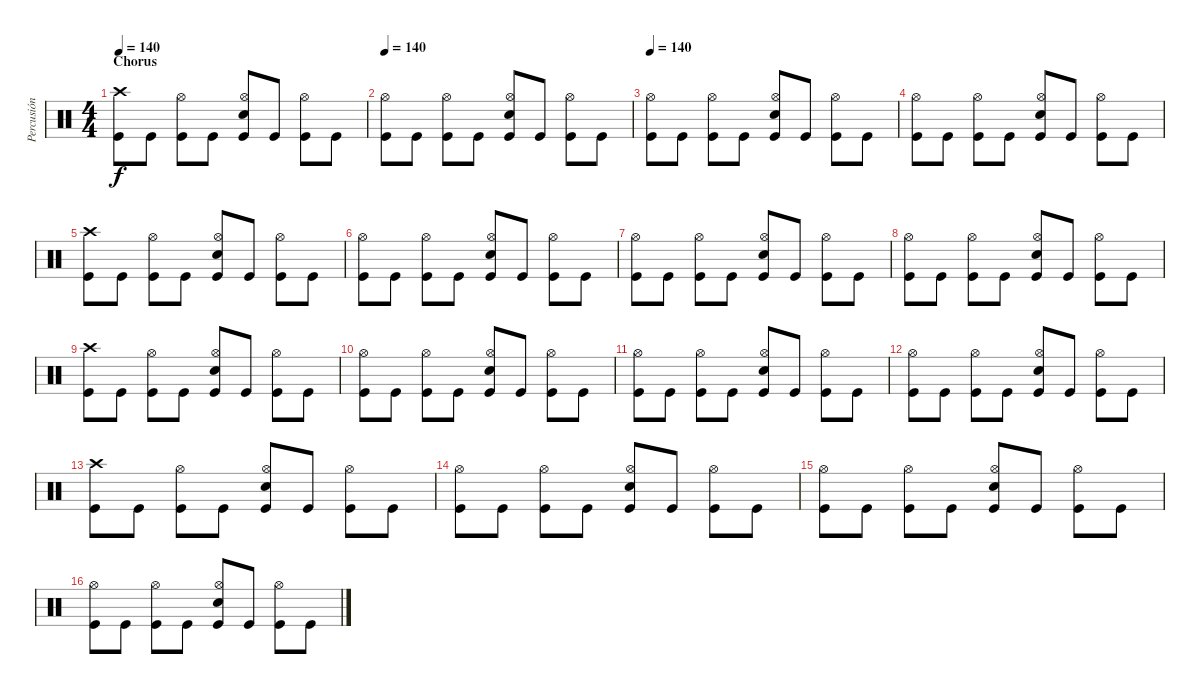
\track ("Percusión" "Percusión") {instrument percussion}
\staff
\articulation defaults
\ts (4 4)
\section ("" "Chorus")
\tempo 140
\clef neutral
\ks c
("Kick (hit)" "Crash high (hit)").8{dy f} "Kick (hit)".8 ("Kick (hit)" "Hi-Hat (open)").8 "Kick (hit)".8 ("Kick (hit)" "Hi-Hat (open)" "Electric Snare (hit)").8 "Kick (hit)".8 ("Kick (hit)" "Hi-Hat (open)").8 "Kick (hit)".8 |
\tempo 140
("Kick (hit)" "Hi-Hat (open)").8 "Kick (hit)".8 ("Kick (hit)" "Hi-Hat (open)").8 "Kick (hit)".8 ("Kick (hit)" "Hi-Hat (open)" "Electric Snare (hit)").8 "Kick (hit)".8 ("Kick (hit)" "Hi-Hat (open)").8 "Kick (hit)".8 |
\tempo 140
("Kick (hit)" "Hi-Hat (open)").8 "Kick (hit)".8 ("Kick (hit)" "Hi-Hat (open)").8 "Kick (hit)".8 ("Kick (hit)" "Hi-Hat (open)" "Electric Snare (hit)").8 "Kick (hit)".8 ("Kick (hit)" "Hi-Hat (open)").8 "Kick (hit)".8 |
("Kick (hit)" "Hi-Hat (open)").8 "Kick (hit)".8 ("Kick (hit)" "Hi-Hat (open)").8 "Kick (hit)".8 ("Kick (hit)" "Hi-Hat (open)" "Electric Snare (hit)").8 "Kick (hit)".8 ("Kick (hit)" "Hi-Hat (open)").8 "Kick (hit)".8 |
("Kick (hit)" "Crash high (hit)").8 "Kick (hit)".8 ("Kick (hit)" "Hi-Hat (open)").8 "Kick (hit)".8 ("Kick (hit)" "Hi-Hat (open)" "Electric Snare (hit)").8 "Kick (hit)".8 ("Kick (hit)" "Hi-Hat (open)").8 "Kick (hit)".8 |
("Kick (hit)" "Hi-Hat (open)").8 "Kick (hit)".8 ("Kick (hit)" "Hi-Hat (open)").8 "Kick (hit)".8 ("Kick (hit)" "Hi-Hat (open)" "Electric Snare (hit)").8 "Kick (hit)".8 ("Kick (hit)" "Hi-Hat (open)").8 "Kick (hit)".8 |
("Kick (hit)" "Hi-Hat (open)").8 "Kick (hit)".8 ("Kick (hit)" "Hi-Hat (open)").8 "Kick (hit)".8 ("Kick (hit)" "Hi-Hat (open)" "Electric Snare (hit)").8 "Kick (hit)".8 ("Kick (hit)" "Hi-Hat (open)").8 "Kick (hit)".8 |
("Kick (hit)" "Hi-Hat (open)").8 "Kick (hit)".8 ("Kick (hit)" "Hi-Hat (open)").8 "Kick (hit)".8 ("Kick (hit)" "Hi-Hat (open)" "Electric Snare (hit)").8 "Kick (hit)".8 ("Kick (hit)" "Hi-Hat (open)").8 "Kick (hit)".8 |
("Kick (hit)" "Crash high (hit)").8 "Kick (hit)".8 ("Kick (hit)" "Hi-Hat (open)").8 "Kick (hit)".8 ("Kick (hit)" "Hi-Hat (open)" "Electric Snare (hit)").8 "Kick (hit)".8 ("Kick (hit)" "Hi-Hat (open)").8 "Kick (hit)".8 |
("Kick (hit)" "Hi-Hat (open)").8 "Kick (hit)".8 ("Kick (hit)" "Hi-Hat (open)").8 "Kick (hit)".8 ("Kick (hit)" "Hi-Hat (open)" "Electric Snare (hit)").8 "Kick (hit)".8 ("Kick (hit)" "Hi-Hat (open)").8 "Kick (hit)".8 |
("Kick (hit)" "Hi-Hat (open)").8 "Kick (hit)".8 ("Kick (hit)" "Hi-Hat (open)").8 "Kick (hit)".8 ("Kick (hit)" "Hi-Hat (open)" "Electric Snare (hit)").8 "Kick (hit)".8 ("Kick (hit)" "Hi-Hat (open)").8 "Kick (hit)".8 |
("Kick (hit)" "Hi-Hat (open)").8 "Kick (hit)".8 ("Kick (hit)" "Hi-Hat (open)").8 "Kick (hit)".8 ("Kick (hit)" "Hi-Hat (open)" "Electric Snare (hit)").8 "Kick (hit)".8 ("Kick (hit)" "Hi-Hat (open)").8 "Kick (hit)".8 |
("Kick (hit)" "Crash high (hit)").8 "Kick (hit)".8 ("Kick (hit)" "Hi-Hat (open)").8 "Kick (hit)".8 ("Kick (hit)" "Hi-Hat (open)" "Electric Snare (hit)").8 "Kick (hit)".8 ("Kick (hit)" "Hi-Hat (open)").8 "Kick (hit)".8 |
("Kick (hit)" "Hi-Hat (open)").8 "Kick (hit)".8 ("Kick (hit)" "Hi-Hat (open)").8 "Kick (hit)".8 ("Kick (hit)" "Hi-Hat (open)" "Electric Snare (hit)").8 "Kick (hit)".8 ("Kick (hit)" "Hi-Hat (open)").8 "Kick (hit)".8 |
("Kick (hit)" "Hi-Hat (open)").8 "Kick (hit)".8 ("Kick (hit)" "Hi-Hat (open)").8 "Kick (hit)".8 ("Kick (hit)" "Hi-Hat (open)" "Electric Snare (hit)").8 "Kick (hit)".8 ("Kick (hit)" "Hi-Hat (open)").8 "Kick (hit)".8 |
("Kick (hit)" "Hi-Hat (open)").8 "Kick (hit)".8 ("Kick (hit)" "Hi-Hat (open)").8 "Kick (hit)".8 ("Kick (hit)" "Hi-Hat (open)" "Electric Snare (hit)").8 "Kick (hit)".8 ("Kick (hit)" "Hi-Hat (open)").8 "Kick (hit)".8
